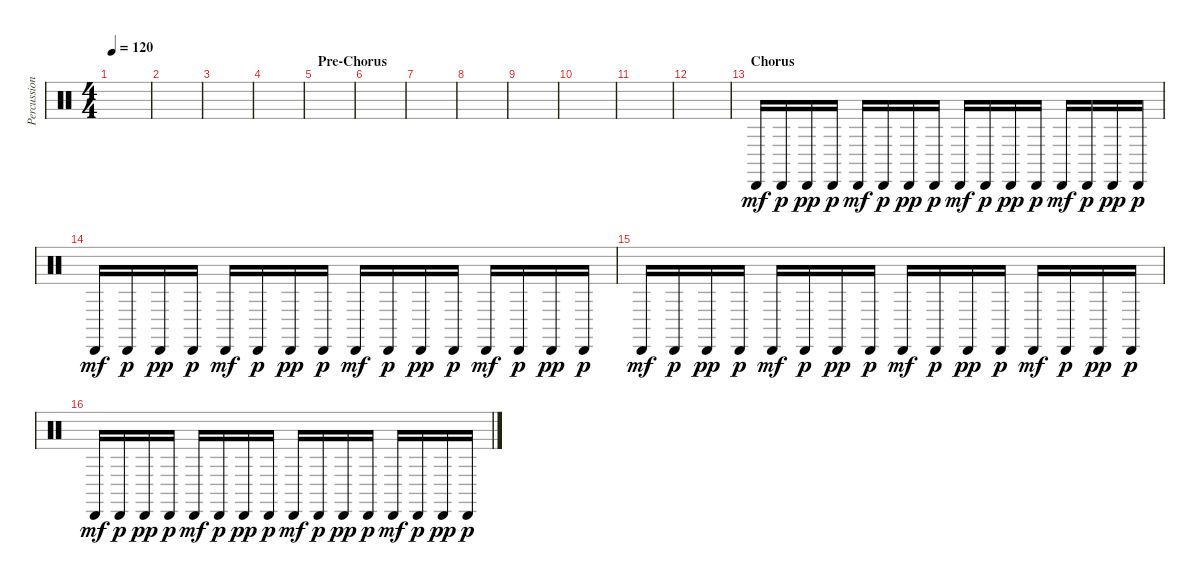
\track ("Percussion" "Percussion") {instrument percussion}
\staff {score}
\articulation defaults
\ts (4 4)
\tempo 120
\clef neutral
\ks c
|
|
|
|
\section ("" "Pre-Chorus")
|
|
|
|
|
|
|
|
\section ("" "Chorus")
"Cabasa (hit)".16{dy mf} "Cabasa (hit)".16{dy p} "Cabasa (hit)".16{dy pp} "Cabasa (hit)".16{dy p} "Cabasa (hit)".16{dy mf} "Cabasa (hit)".16{dy p} "Cabasa (hit)".16{dy pp} "Cabasa (hit)".16{dy p} "Cabasa (hit)".16{dy mf} "Cabasa (hit)".16{dy p} "Cabasa (hit)".16{dy pp} "Cabasa (hit)".16{dy p} "Cabasa (hit)".16{dy mf} "Cabasa (hit)".16{dy p} "Cabasa (hit)".16{dy pp} "Cabasa (hit)".16{dy p} |
"Cabasa (hit)".16{dy mf} "Cabasa (hit)".16{dy p} "Cabasa (hit)".16{dy pp} "Cabasa (hit)".16{dy p} "Cabasa (hit)".16{dy mf} "Cabasa (hit)".16{dy p} "Cabasa (hit)".16{dy pp} "Cabasa (hit)".16{dy p} "Cabasa (hit)".16{dy mf} "Cabasa (hit)".16{dy p} "Cabasa (hit)".16{dy pp} "Cabasa (hit)".16{dy p} "Cabasa (hit)".16{dy mf} "Cabasa (hit)".16{dy p} "Cabasa (hit)".16{dy pp} "Cabasa (hit)".16{dy p} |
"Cabasa (hit)".16{dy mf} "Cabasa (hit)".16{dy p} "Cabasa (hit)".16{dy pp} "Cabasa (hit)".16{dy p} "Cabasa (hit)".16{dy mf} "Cabasa (hit)".16{dy p} "Cabasa (hit)".16{dy pp} "Cabasa (hit)".16{dy p} "Cabasa (hit)".16{dy mf} "Cabasa (hit)".16{dy p} "Cabasa (hit)".16{dy pp} "Cabasa (hit)".16{dy p} "Cabasa (hit)".16{dy mf} "Cabasa (hit)".16{dy p} "Cabasa (hit)".16{dy pp} "Cabasa (hit)".16{dy p} |
"Cabasa (hit)".16{dy mf} "Cabasa (hit)".16{dy p} "Cabasa (hit)".16{dy pp} "Cabasa (hit)".16{dy p} "Cabasa (hit)".16{dy mf} "Cabasa (hit)".16{dy p} "Cabasa (hit)".16{dy pp} "Cabasa (hit)".16{dy p} "Cabasa (hit)".16{dy mf} "Cabasa (hit)".16{dy p} "Cabasa (hit)".16{dy pp} "Cabasa (hit)".16{dy p} "Cabasa (hit)".16{dy mf} "Cabasa (hit)".16{dy p} "Cabasa (hit)".16{dy pp} "Cabasa (hit)".16{dy p}
